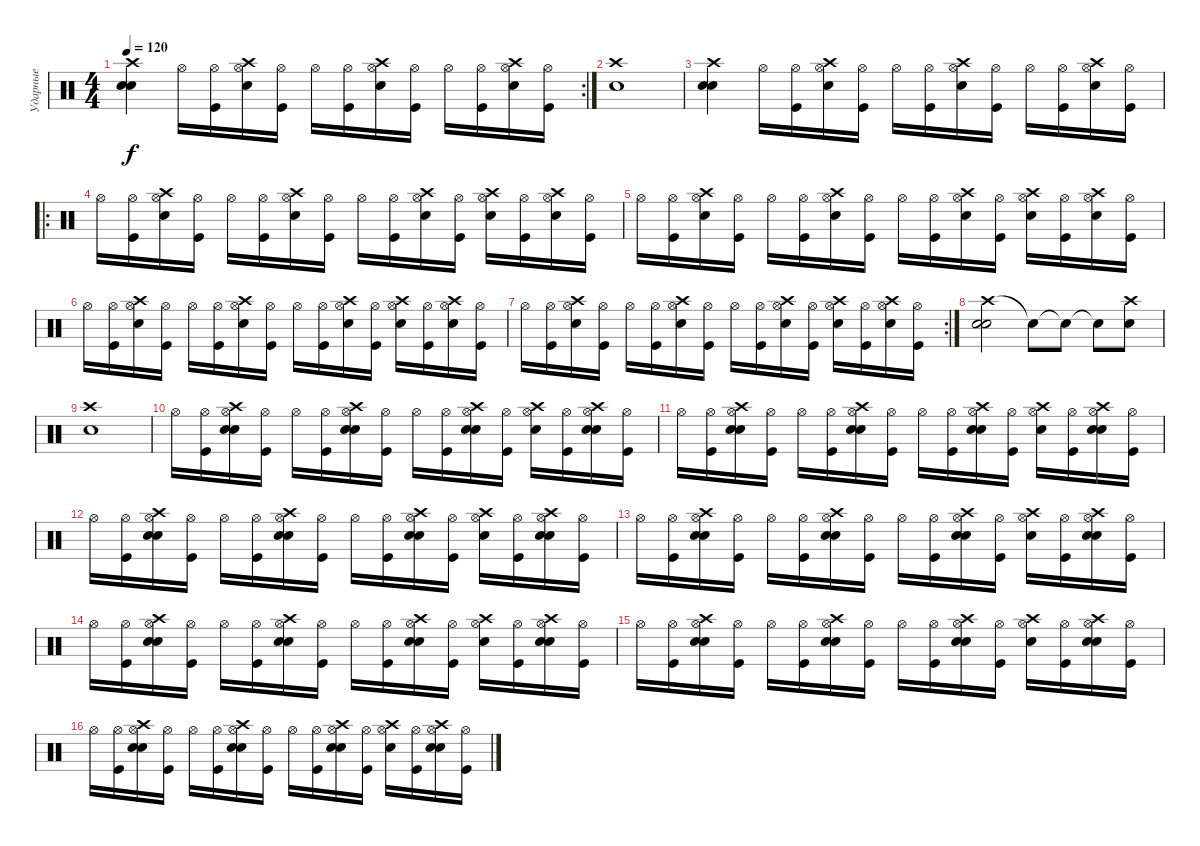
\track ("Ударные" "Ударные") {instrument percussion}
\staff {score}
\articulation defaults
\rc 2
\ts (4 4)
\tempo 120
\clef neutral
\ks c
("Crash high (hit)" "Snare (hit) 2" "Electric Snare (hit)").4{dy f} "Hi-Hat (open)".16 ("Hi-Hat (open)" "Kick (hit)").16 ("Hi-Hat (open)" "Snare (hit) 2" "Crash high (hit)").16 ("Hi-Hat (open)" "Kick (hit)").16 "Hi-Hat (open)".16 ("Hi-Hat (open)" "Kick (hit)").16 ("Hi-Hat (open)" "Snare (hit) 2" "Crash high (hit)").16 ("Hi-Hat (open)" "Kick (hit)").16 "Hi-Hat (open)".16 ("Hi-Hat (open)" "Kick (hit)").16 ("Hi-Hat (open)" "Snare (hit) 2" "Crash high (hit)").16 ("Hi-Hat (open)" "Kick (hit)").16 |
("Crash high (hit)" "Electric Snare (hit)").1 |
("Crash high (hit)" "Snare (hit) 2" "Electric Snare (hit)").4 "Hi-Hat (open)".16 ("Hi-Hat (open)" "Kick (hit)").16 ("Hi-Hat (open)" "Snare (hit) 2" "Crash high (hit)").16 ("Hi-Hat (open)" "Kick (hit)").16 "Hi-Hat (open)".16 ("Hi-Hat (open)" "Kick (hit)").16 ("Hi-Hat (open)" "Snare (hit) 2" "Crash high (hit)").16 ("Hi-Hat (open)" "Kick (hit)").16 "Hi-Hat (open)".16 ("Hi-Hat (open)" "Kick (hit)").16 ("Hi-Hat (open)" "Snare (hit) 2" "Crash high (hit)").16 ("Hi-Hat (open)" "Kick (hit)").16 |
\ro "Hi-Hat (open)".16
("Hi-Hat (open)" "Kick (hit)").16 ("Hi-Hat (open)" "Snare (hit) 2" "Crash high (hit)").16 ("Hi-Hat (open)" "Kick (hit)").16 "Hi-Hat (open)".16 ("Hi-Hat (open)" "Kick (hit)").16 ("Hi-Hat (open)" "Snare (hit) 2" "Crash high (hit)").16 ("Hi-Hat (open)" "Kick (hit)").16 "Hi-Hat (open)".16 ("Hi-Hat (open)" "Kick (hit)").16 ("Hi-Hat (open)" "Snare (hit) 2" "Crash high (hit)").16 ("Hi-Hat (open)" "Kick (hit)").16 ("Hi-Hat (open)" "Snare (hit) 2" "Crash high (hit)").16 ("Hi-Hat (open)" "Kick (hit)").16 ("Hi-Hat (open)" "Snare (hit) 2" "Crash high (hit)").16 ("Hi-Hat (open)" "Kick (hit)").16 |
"Hi-Hat (open)".16 ("Hi-Hat (open)" "Kick (hit)").16 ("Hi-Hat (open)" "Snare (hit) 2" "Crash high (hit)").16 ("Hi-Hat (open)" "Kick (hit)").16 "Hi-Hat (open)".16 ("Hi-Hat (open)" "Kick (hit)").16 ("Hi-Hat (open)" "Snare (hit) 2" "Crash high (hit)").16 ("Hi-Hat (open)" "Kick (hit)").16 "Hi-Hat (open)".16 ("Hi-Hat (open)" "Kick (hit)").16 ("Hi-Hat (open)" "Snare (hit) 2" "Crash high (hit)").16 ("Hi-Hat (open)" "Kick (hit)").16 ("Hi-Hat (open)" "Snare (hit) 2" "Crash high (hit)").16 ("Hi-Hat (open)" "Kick (hit)").16 ("Hi-Hat (open)" "Snare (hit) 2" "Crash high (hit)").16 ("Hi-Hat (open)" "Kick (hit)").16 |
"Hi-Hat (open)".16 ("Hi-Hat (open)" "Kick (hit)").16 ("Hi-Hat (open)" "Snare (hit) 2" "Crash high (hit)").16 ("Hi-Hat (open)" "Kick (hit)").16 "Hi-Hat (open)".16 ("Hi-Hat (open)" "Kick (hit)").16 ("Hi-Hat (open)" "Snare (hit) 2" "Crash high (hit)").16 ("Hi-Hat (open)" "Kick (hit)").16 "Hi-Hat (open)".16 ("Hi-Hat (open)" "Kick (hit)").16 ("Hi-Hat (open)" "Snare (hit) 2" "Crash high (hit)").16 ("Hi-Hat (open)" "Kick (hit)").16 ("Hi-Hat (open)" "Snare (hit) 2" "Crash high (hit)").16 ("Hi-Hat (open)" "Kick (hit)").16 ("Hi-Hat (open)" "Snare (hit) 2" "Crash high (hit)").16 ("Hi-Hat (open)" "Kick (hit)").16 |
\rc 2 "Hi-Hat (open)".16
("Hi-Hat (open)" "Kick (hit)").16 ("Hi-Hat (open)" "Snare (hit) 2" "Crash high (hit)").16 ("Hi-Hat (open)" "Kick (hit)").16 "Hi-Hat (open)".16 ("Hi-Hat (open)" "Kick (hit)").16 ("Hi-Hat (open)" "Snare (hit) 2" "Crash high (hit)").16 ("Hi-Hat (open)" "Kick (hit)").16 "Hi-Hat (open)".16 ("Hi-Hat (open)" "Kick (hit)").16 ("Hi-Hat (open)" "Snare (hit) 2" "Crash high (hit)").16 ("Hi-Hat (open)" "Kick (hit)").16 ("Hi-Hat (open)" "Snare (hit) 2" "Crash high (hit)").16 ("Hi-Hat (open)" "Kick (hit)").16 ("Hi-Hat (open)" "Snare (hit) 2" "Crash high (hit)").16 ("Hi-Hat (open)" "Kick (hit)").16 |
("Crash high (hit)" "Snare (hit) 2" "Electric Snare (hit)").2 "Snare (hit)"{t}.8 "Snare (hit)"{t}.8 "Snare (hit)"{t}.8 ("Crash high (hit)" "Snare (hit) 2").8 |
("Crash high (hit)" "Electric Snare (hit)").1 |
"Hi-Hat (open)".16 ("Hi-Hat (open)" "Kick (hit)").16 ("Hi-Hat (open)" "Snare (hit) 2" "Crash high (hit)" "Electric Snare (hit)").16 ("Hi-Hat (open)" "Kick (hit)").16 "Hi-Hat (open)".16 ("Hi-Hat (open)" "Kick (hit)").16 ("Hi-Hat (open)" "Snare (hit) 2" "Crash high (hit)" "Electric Snare (hit)").16 ("Hi-Hat (open)" "Kick (hit)").16 "Hi-Hat (open)".16 ("Hi-Hat (open)" "Kick (hit)").16 ("Hi-Hat (open)" "Snare (hit) 2" "Crash high (hit)" "Electric Snare (hit)").16 ("Hi-Hat (open)" "Kick (hit)").16 ("Hi-Hat (open)" "Snare (hit) 2" "Crash high (hit)").16 ("Hi-Hat (open)" "Kick (hit)").16 ("Hi-Hat (open)" "Snare (hit) 2" "Crash high (hit)" "Electric Snare (hit)").16 ("Hi-Hat (open)" "Kick (hit)").16 |
"Hi-Hat (open)".16 ("Hi-Hat (open)" "Kick (hit)").16 ("Hi-Hat (open)" "Snare (hit) 2" "Crash high (hit)" "Electric Snare (hit)").16 ("Hi-Hat (open)" "Kick (hit)").16 "Hi-Hat (open)".16 ("Hi-Hat (open)" "Kick (hit)").16 ("Hi-Hat (open)" "Snare (hit) 2" "Crash high (hit)" "Electric Snare (hit)").16 ("Hi-Hat (open)" "Kick (hit)").16 "Hi-Hat (open)".16 ("Hi-Hat (open)" "Kick (hit)").16 ("Hi-Hat (open)" "Snare (hit) 2" "Crash high (hit)" "Electric Snare (hit)").16 ("Hi-Hat (open)" "Kick (hit)").16 ("Hi-Hat (open)" "Snare (hit) 2" "Crash high (hit)").16 ("Hi-Hat (open)" "Kick (hit)").16 ("Hi-Hat (open)" "Snare (hit) 2" "Crash high (hit)" "Electric Snare (hit)").16 ("Hi-Hat (open)" "Kick (hit)").16 |
"Hi-Hat (open)".16 ("Hi-Hat (open)" "Kick (hit)").16 ("Hi-Hat (open)" "Snare (hit) 2" "Crash high (hit)" "Electric Snare (hit)").16 ("Hi-Hat (open)" "Kick (hit)").16 "Hi-Hat (open)".16 ("Hi-Hat (open)" "Kick (hit)").16 ("Hi-Hat (open)" "Snare (hit) 2" "Crash high (hit)" "Electric Snare (hit)").16 ("Hi-Hat (open)" "Kick (hit)").16 "Hi-Hat (open)".16 ("Hi-Hat (open)" "Kick (hit)").16 ("Hi-Hat (open)" "Snare (hit) 2" "Crash high (hit)" "Electric Snare (hit)").16 ("Hi-Hat (open)" "Kick (hit)").16 ("Hi-Hat (open)" "Snare (hit) 2" "Crash high (hit)").16 ("Hi-Hat (open)" "Kick (hit)").16 ("Hi-Hat (open)" "Snare (hit) 2" "Crash high (hit)" "Electric Snare (hit)").16 ("Hi-Hat (open)" "Kick (hit)").16 |
"Hi-Hat (open)".16 ("Hi-Hat (open)" "Kick (hit)").16 ("Hi-Hat (open)" "Snare (hit) 2" "Crash high (hit)" "Electric Snare (hit)").16 ("Hi-Hat (open)" "Kick (hit)").16 "Hi-Hat (open)".16 ("Hi-Hat (open)" "Kick (hit)").16 ("Hi-Hat (open)" "Snare (hit) 2" "Crash high (hit)" "Electric Snare (hit)").16 ("Hi-Hat (open)" "Kick (hit)").16 "Hi-Hat (open)".16 ("Hi-Hat (open)" "Kick (hit)").16 ("Hi-Hat (open)" "Snare (hit) 2" "Crash high (hit)" "Electric Snare (hit)").16 ("Hi-Hat (open)" "Kick (hit)").16 ("Hi-Hat (open)" "Snare (hit) 2" "Crash high (hit)").16 ("Hi-Hat (open)" "Kick (hit)").16 ("Hi-Hat (open)" "Snare (hit) 2" "Crash high (hit)" "Electric Snare (hit)").16 ("Hi-Hat (open)" "Kick (hit)").16 |
"Hi-Hat (open)".16 ("Hi-Hat (open)" "Kick (hit)").16 ("Hi-Hat (open)" "Snare (hit) 2" "Crash high (hit)" "Electric Snare (hit)").16 ("Hi-Hat (open)" "Kick (hit)").16 "Hi-Hat (open)".16 ("Hi-Hat (open)" "Kick (hit)").16 ("Hi-Hat (open)" "Snare (hit) 2" "Crash high (hit)" "Electric Snare (hit)").16 ("Hi-Hat (open)" "Kick (hit)").16 "Hi-Hat (open)".16 ("Hi-Hat (open)" "Kick (hit)").16 ("Hi-Hat (open)" "Snare (hit) 2" "Crash high (hit)" "Electric Snare (hit)").16 ("Hi-Hat (open)" "Kick (hit)").16 ("Hi-Hat (open)" "Snare (hit) 2" "Crash high (hit)").16 ("Hi-Hat (open)" "Kick (hit)").16 ("Hi-Hat (open)" "Snare (hit) 2" "Crash high (hit)" "Electric Snare (hit)").16 ("Hi-Hat (open)" "Kick (hit)").16 |
"Hi-Hat (open)".16 ("Hi-Hat (open)" "Kick (hit)").16 ("Hi-Hat (open)" "Snare (hit) 2" "Crash high (hit)" "Electric Snare (hit)").16 ("Hi-Hat (open)" "Kick (hit)").16 "Hi-Hat (open)".16 ("Hi-Hat (open)" "Kick (hit)").16 ("Hi-Hat (open)" "Snare (hit) 2" "Crash high (hit)" "Electric Snare (hit)").16 ("Hi-Hat (open)" "Kick (hit)").16 "Hi-Hat (open)".16 ("Hi-Hat (open)" "Kick (hit)").16 ("Hi-Hat (open)" "Snare (hit) 2" "Crash high (hit)" "Electric Snare (hit)").16 ("Hi-Hat (open)" "Kick (hit)").16 ("Hi-Hat (open)" "Snare (hit) 2" "Crash high (hit)").16 ("Hi-Hat (open)" "Kick (hit)").16 ("Hi-Hat (open)" "Snare (hit) 2" "Crash high (hit)" "Electric Snare (hit)").16 ("Hi-Hat (open)" "Kick (hit)").16 |
"Hi-Hat (open)".16 ("Hi-Hat (open)" "Kick (hit)").16 ("Hi-Hat (open)" "Snare (hit) 2" "Crash high (hit)" "Electric Snare (hit)").16 ("Hi-Hat (open)" "Kick (hit)").16 "Hi-Hat (open)".16 ("Hi-Hat (open)" "Kick (hit)").16 ("Hi-Hat (open)" "Snare (hit) 2" "Crash high (hit)" "Electric Snare (hit)").16 ("Hi-Hat (open)" "Kick (hit)").16 "Hi-Hat (open)".16 ("Hi-Hat (open)" "Kick (hit)").16 ("Hi-Hat (open)" "Snare (hit) 2" "Crash high (hit)" "Electric Snare (hit)").16 ("Hi-Hat (open)" "Kick (hit)").16 ("Hi-Hat (open)" "Snare (hit) 2" "Crash high (hit)").16 ("Hi-Hat (open)" "Kick (hit)").16 ("Hi-Hat (open)" "Snare (hit) 2" "Crash high (hit)" "Electric Snare (hit)").16 ("Hi-Hat (open)" "Kick (hit)").16
